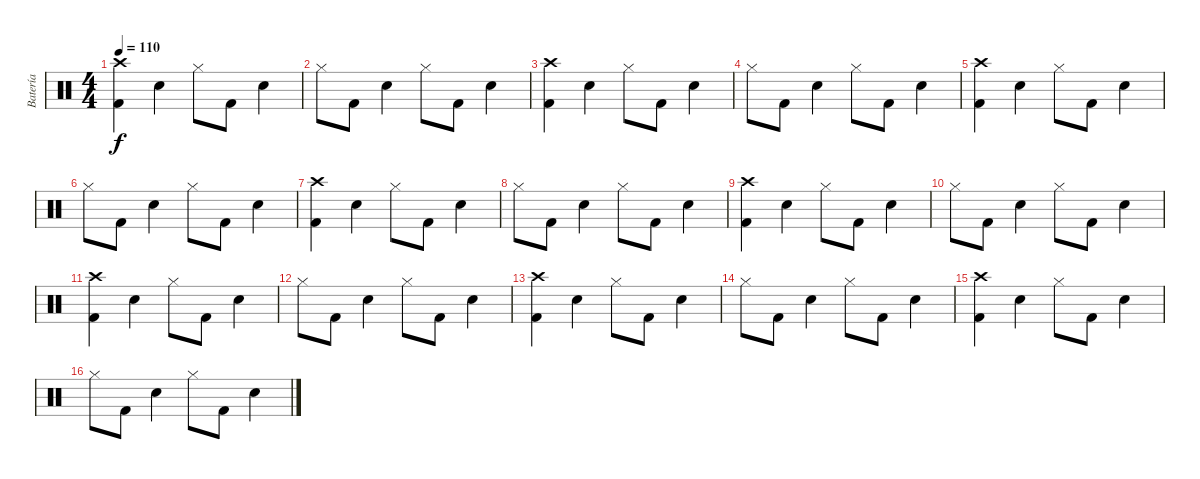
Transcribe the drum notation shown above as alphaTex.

\track ("Batería" "Batería") {instrument percussion}
\staff {score}
\articulation defaults
\ts (4 4)
\tempo 110
\clef neutral
\ks c
("Crash high (hit)" "Kick (hit) 2").4{dy f volume 6} "Electric Snare (hit)".4 "Hi-Hat (closed)".8 "Kick (hit) 2".8 "Electric Snare (hit)".4 |
"Hi-Hat (closed)".8{volume 9} "Kick (hit) 2".8 "Electric Snare (hit)".4 "Hi-Hat (closed)".8 "Kick (hit) 2".8 "Electric Snare (hit)".4 |
("Crash high (hit)" "Kick (hit) 2").4{volume 11} "Electric Snare (hit)".4 "Hi-Hat (closed)".8 "Kick (hit) 2".8 "Electric Snare (hit)".4 |
"Hi-Hat (closed)".8 "Kick (hit) 2".8 "Electric Snare (hit)".4 "Hi-Hat (closed)".8 "Kick (hit) 2".8 "Electric Snare (hit)".4 |
("Crash high (hit)" "Kick (hit) 2").4{volume 11} "Electric Snare (hit)".4 "Hi-Hat (closed)".8 "Kick (hit) 2".8 "Electric Snare (hit)".4 |
"Hi-Hat (closed)".8 "Kick (hit) 2".8 "Electric Snare (hit)".4 "Hi-Hat (closed)".8 "Kick (hit) 2".8 "Electric Snare (hit)".4 |
("Crash high (hit)" "Kick (hit) 2").4{volume 11} "Electric Snare (hit)".4 "Hi-Hat (closed)".8 "Kick (hit) 2".8 "Electric Snare (hit)".4 |
"Hi-Hat (closed)".8 "Kick (hit) 2".8 "Electric Snare (hit)".4 "Hi-Hat (closed)".8 "Kick (hit) 2".8 "Electric Snare (hit)".4 |
("Crash high (hit)" "Kick (hit) 2").4{volume 11} "Electric Snare (hit)".4 "Hi-Hat (closed)".8 "Kick (hit) 2".8 "Electric Snare (hit)".4 |
"Hi-Hat (closed)".8 "Kick (hit) 2".8 "Electric Snare (hit)".4 "Hi-Hat (closed)".8 "Kick (hit) 2".8 "Electric Snare (hit)".4 |
("Crash high (hit)" "Kick (hit) 2").4{volume 11} "Electric Snare (hit)".4 "Hi-Hat (closed)".8 "Kick (hit) 2".8 "Electric Snare (hit)".4 |
"Hi-Hat (closed)".8 "Kick (hit) 2".8 "Electric Snare (hit)".4 "Hi-Hat (closed)".8 "Kick (hit) 2".8 "Electric Snare (hit)".4 |
("Crash high (hit)" "Kick (hit) 2").4{volume 11} "Electric Snare (hit)".4 "Hi-Hat (closed)".8 "Kick (hit) 2".8 "Electric Snare (hit)".4 |
"Hi-Hat (closed)".8 "Kick (hit) 2".8 "Electric Snare (hit)".4 "Hi-Hat (closed)".8 "Kick (hit) 2".8 "Electric Snare (hit)".4 |
("Crash high (hit)" "Kick (hit) 2").4{volume 11} "Electric Snare (hit)".4 "Hi-Hat (closed)".8 "Kick (hit) 2".8 "Electric Snare (hit)".4 |
"Hi-Hat (closed)".8 "Kick (hit) 2".8 "Electric Snare (hit)".4 "Hi-Hat (closed)".8 "Kick (hit) 2".8 "Electric Snare (hit)".4
